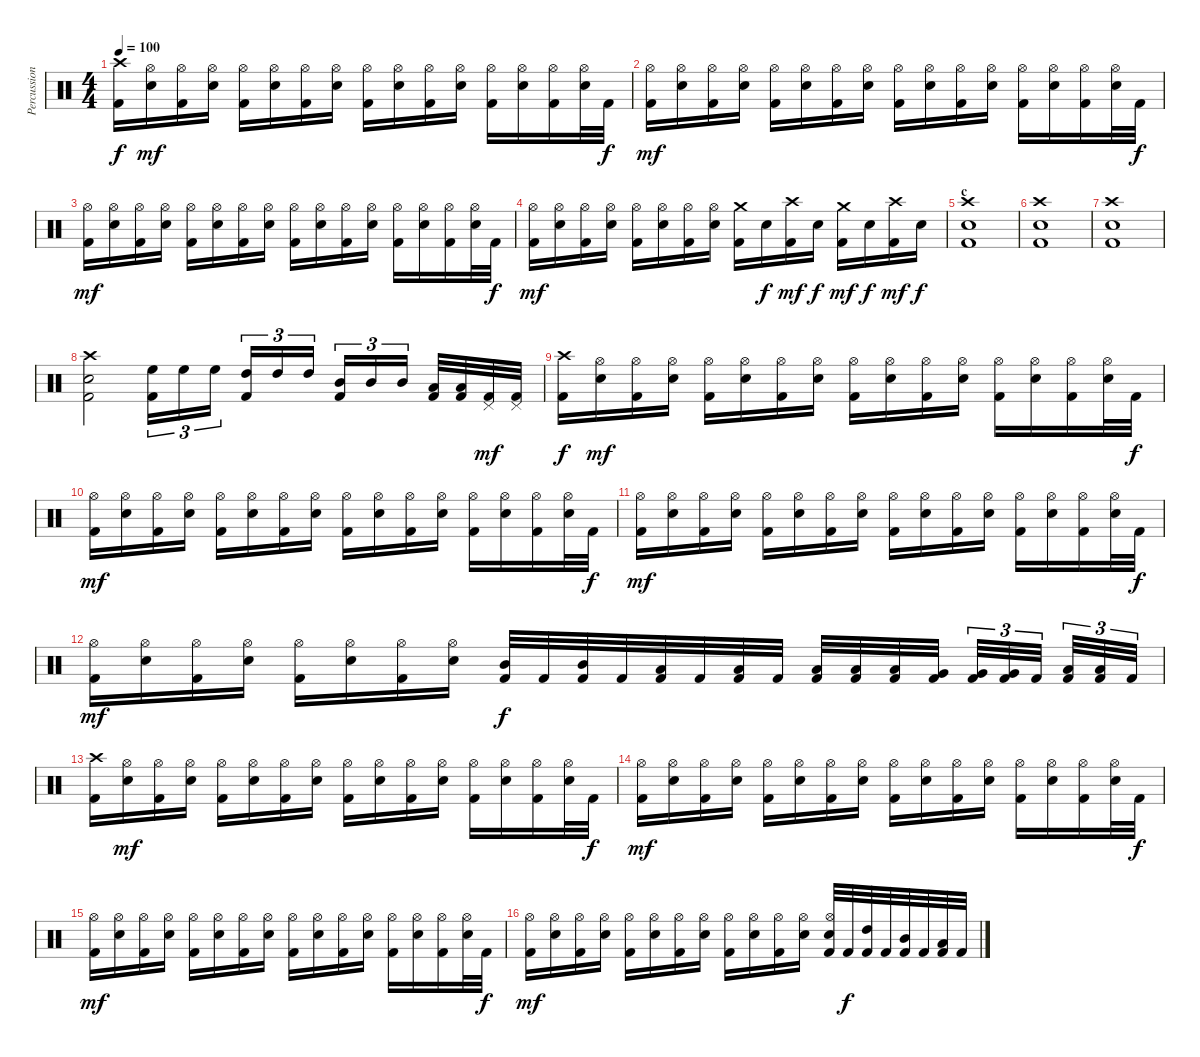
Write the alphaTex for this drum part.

\track ("Percussion" "Percussion") {instrument percussion}
\staff {score}
\articulation defaults
\ts (4 4)
\tempo 100
\clef neutral
\ks c
("Crash high (hit)" "Kick (hit) 2").16{dy f} ("Hi-Hat (open)" "Electric Snare (hit)").16{dy mf} ("Hi-Hat (open)" "Kick (hit) 2").16 ("Hi-Hat (open)" "Electric Snare (hit)").16 ("Hi-Hat (open)" "Kick (hit) 2").16 ("Hi-Hat (open)" "Electric Snare (hit)").16 ("Hi-Hat (open)" "Kick (hit) 2").16 ("Hi-Hat (open)" "Electric Snare (hit)").16 ("Hi-Hat (open)" "Kick (hit) 2").16 ("Hi-Hat (open)" "Electric Snare (hit)").16 ("Hi-Hat (open)" "Kick (hit) 2").16 ("Hi-Hat (open)" "Electric Snare (hit)").16 ("Hi-Hat (open)" "Kick (hit) 2").16 ("Hi-Hat (open)" "Electric Snare (hit)").16 ("Hi-Hat (open)" "Kick (hit) 2").16 ("Hi-Hat (open)" "Electric Snare (hit)").32 "Kick (hit) 2".32{dy f} |
("Hi-Hat (open)" "Kick (hit) 2").16{dy mf} ("Hi-Hat (open)" "Electric Snare (hit)").16 ("Hi-Hat (open)" "Kick (hit) 2").16 ("Hi-Hat (open)" "Electric Snare (hit)").16 ("Hi-Hat (open)" "Kick (hit) 2").16 ("Hi-Hat (open)" "Electric Snare (hit)").16 ("Hi-Hat (open)" "Kick (hit) 2").16 ("Hi-Hat (open)" "Electric Snare (hit)").16 ("Hi-Hat (open)" "Kick (hit) 2").16 ("Hi-Hat (open)" "Electric Snare (hit)").16 ("Hi-Hat (open)" "Kick (hit) 2").16 ("Hi-Hat (open)" "Electric Snare (hit)").16 ("Hi-Hat (open)" "Kick (hit) 2").16 ("Hi-Hat (open)" "Electric Snare (hit)").16 ("Hi-Hat (open)" "Kick (hit) 2").16 ("Hi-Hat (open)" "Electric Snare (hit)").32 "Kick (hit) 2".32{dy f} |
("Hi-Hat (open)" "Kick (hit) 2").16{dy mf} ("Hi-Hat (open)" "Electric Snare (hit)").16 ("Hi-Hat (open)" "Kick (hit) 2").16 ("Hi-Hat (open)" "Electric Snare (hit)").16 ("Hi-Hat (open)" "Kick (hit) 2").16 ("Hi-Hat (open)" "Electric Snare (hit)").16 ("Hi-Hat (open)" "Kick (hit) 2").16 ("Hi-Hat (open)" "Electric Snare (hit)").16 ("Hi-Hat (open)" "Kick (hit) 2").16 ("Hi-Hat (open)" "Electric Snare (hit)").16 ("Hi-Hat (open)" "Kick (hit) 2").16 ("Hi-Hat (open)" "Electric Snare (hit)").16 ("Hi-Hat (open)" "Kick (hit) 2").16 ("Hi-Hat (open)" "Electric Snare (hit)").16 ("Hi-Hat (open)" "Kick (hit) 2").16 ("Hi-Hat (open)" "Electric Snare (hit)").32 "Kick (hit) 2".32{dy f} |
("Hi-Hat (open)" "Kick (hit) 2").16{dy mf} ("Hi-Hat (open)" "Electric Snare (hit)").16 ("Hi-Hat (open)" "Kick (hit) 2").16 ("Hi-Hat (open)" "Electric Snare (hit)").16 ("Hi-Hat (open)" "Kick (hit) 2").16 ("Hi-Hat (open)" "Electric Snare (hit)").16 ("Hi-Hat (open)" "Kick (hit) 2").16 ("Hi-Hat (open)" "Electric Snare (hit)").16 ("Crash medium (hit)" "Kick (hit) 2").16 "Electric Snare (hit)".16{dy f} ("Crash high (hit)" "Kick (hit) 2").16{dy mf} "Electric Snare (hit)".16{dy f} ("Crash medium (hit)" "Kick (hit) 2").16{dy mf} "Electric Snare (hit)".16{dy f} ("Crash high (hit)" "Kick (hit) 2").16{dy mf} "Electric Snare (hit)".16{dy f} |
\section ("" "c")
("Crash high (hit)" "Electric Snare (hit)" "Kick (hit) 2").1 |
("Crash high (hit)" "Electric Snare (hit)" "Kick (hit) 2").1 |
("Crash high (hit)" "Electric Snare (hit)" "Kick (hit) 2").1 |
("Crash high (hit)" "Electric Snare (hit)" "Kick (hit) 2").2 ("High Floor Tom (hit)" "Kick (hit) 2").16{tu (3 2)} "High Floor Tom (hit)".16{tu (3 2)} "High Floor Tom (hit)".16{tu (3 2)} ("High Tom (hit)" "Kick (hit) 2").16{tu (3 2)} "High Tom (hit)".16{tu (3 2)} "High Tom (hit)".16{tu (3 2)} ("Mid Tom (hit)" "Kick (hit) 2").16{tu (3 2)} "Mid Tom (hit)".16{tu (3 2)} "Mid Tom (hit)".16{tu (3 2)} ("Low Tom (hit)" "Kick (hit) 2").32 ("Low Tom (hit)" "Kick (hit) 2").32 ("Pedal Hi-Hat (hit)" "Kick (hit) 2").32{dy mf} ("Pedal Hi-Hat (hit)" "Kick (hit) 2").32 |
("Crash high (hit)" "Kick (hit) 2").16{dy f} ("Hi-Hat (open)" "Electric Snare (hit)").16{dy mf} ("Hi-Hat (open)" "Kick (hit) 2").16 ("Hi-Hat (open)" "Electric Snare (hit)").16 ("Hi-Hat (open)" "Kick (hit) 2").16 ("Hi-Hat (open)" "Electric Snare (hit)").16 ("Hi-Hat (open)" "Kick (hit) 2").16 ("Hi-Hat (open)" "Electric Snare (hit)").16 ("Hi-Hat (open)" "Kick (hit) 2").16 ("Hi-Hat (open)" "Electric Snare (hit)").16 ("Hi-Hat (open)" "Kick (hit) 2").16 ("Hi-Hat (open)" "Electric Snare (hit)").16 ("Hi-Hat (open)" "Kick (hit) 2").16 ("Hi-Hat (open)" "Electric Snare (hit)").16 ("Hi-Hat (open)" "Kick (hit) 2").16 ("Hi-Hat (open)" "Electric Snare (hit)").32 "Kick (hit) 2".32{dy f} |
("Hi-Hat (open)" "Kick (hit) 2").16{dy mf} ("Hi-Hat (open)" "Electric Snare (hit)").16 ("Hi-Hat (open)" "Kick (hit) 2").16 ("Hi-Hat (open)" "Electric Snare (hit)").16 ("Hi-Hat (open)" "Kick (hit) 2").16 ("Hi-Hat (open)" "Electric Snare (hit)").16 ("Hi-Hat (open)" "Kick (hit) 2").16 ("Hi-Hat (open)" "Electric Snare (hit)").16 ("Hi-Hat (open)" "Kick (hit) 2").16 ("Hi-Hat (open)" "Electric Snare (hit)").16 ("Hi-Hat (open)" "Kick (hit) 2").16 ("Hi-Hat (open)" "Electric Snare (hit)").16 ("Hi-Hat (open)" "Kick (hit) 2").16 ("Hi-Hat (open)" "Electric Snare (hit)").16 ("Hi-Hat (open)" "Kick (hit) 2").16 ("Hi-Hat (open)" "Electric Snare (hit)").32 "Kick (hit) 2".32{dy f} |
("Hi-Hat (open)" "Kick (hit) 2").16{dy mf} ("Hi-Hat (open)" "Electric Snare (hit)").16 ("Hi-Hat (open)" "Kick (hit) 2").16 ("Hi-Hat (open)" "Electric Snare (hit)").16 ("Hi-Hat (open)" "Kick (hit) 2").16 ("Hi-Hat (open)" "Electric Snare (hit)").16 ("Hi-Hat (open)" "Kick (hit) 2").16 ("Hi-Hat (open)" "Electric Snare (hit)").16 ("Hi-Hat (open)" "Kick (hit) 2").16 ("Hi-Hat (open)" "Electric Snare (hit)").16 ("Hi-Hat (open)" "Kick (hit) 2").16 ("Hi-Hat (open)" "Electric Snare (hit)").16 ("Hi-Hat (open)" "Kick (hit) 2").16 ("Hi-Hat (open)" "Electric Snare (hit)").16 ("Hi-Hat (open)" "Kick (hit) 2").16 ("Hi-Hat (open)" "Electric Snare (hit)").32 "Kick (hit) 2".32{dy f} |
("Hi-Hat (open)" "Kick (hit) 2").16{dy mf} ("Hi-Hat (open)" "Electric Snare (hit)").16 ("Hi-Hat (open)" "Kick (hit) 2").16 ("Hi-Hat (open)" "Electric Snare (hit)").16 ("Hi-Hat (open)" "Kick (hit) 2").16 ("Hi-Hat (open)" "Electric Snare (hit)").16 ("Hi-Hat (open)" "Kick (hit) 2").16 ("Hi-Hat (open)" "Electric Snare (hit)").16 ("Mid Tom (hit)" "Kick (hit) 2").32{dy f} "Kick (hit) 2".32 ("Mid Tom (hit)" "Kick (hit) 2").32 "Kick (hit) 2".32 ("Low Tom (hit)" "Kick (hit) 2").32 "Kick (hit) 2".32 ("Low Tom (hit)" "Kick (hit) 2").32 "Kick (hit) 2".32 ("Low Tom (hit)" "Kick (hit) 2").32 ("Low Tom (hit)" "Kick (hit) 2").32 ("Low Tom (hit)" "Kick (hit) 2").32 ("Very Low Tom (hit)" "Kick (hit) 2").32 ("Very Low Tom (hit)" "Kick (hit) 2").32{tu (3 2)} ("Very Low Tom (hit)" "Kick (hit) 2").32{tu (3 2)} "Kick (hit) 2".32{tu (3 2)} ("Low Floor Tom (hit)" "Kick (hit) 2").32{tu (3 2)} ("Low Floor Tom (hit)" "Kick (hit) 2").32{tu (3 2)} "Kick (hit) 2".32{tu (3 2)} |
\section ("" "")
("Crash high (hit)" "Kick (hit) 2").16 ("Hi-Hat (open)" "Electric Snare (hit)").16{dy mf} ("Hi-Hat (open)" "Kick (hit) 2").16 ("Hi-Hat (open)" "Electric Snare (hit)").16 ("Hi-Hat (open)" "Kick (hit) 2").16 ("Hi-Hat (open)" "Electric Snare (hit)").16 ("Hi-Hat (open)" "Kick (hit) 2").16 ("Hi-Hat (open)" "Electric Snare (hit)").16 ("Hi-Hat (open)" "Kick (hit) 2").16 ("Hi-Hat (open)" "Electric Snare (hit)").16 ("Hi-Hat (open)" "Kick (hit) 2").16 ("Hi-Hat (open)" "Electric Snare (hit)").16 ("Hi-Hat (open)" "Kick (hit) 2").16 ("Hi-Hat (open)" "Electric Snare (hit)").16 ("Hi-Hat (open)" "Kick (hit) 2").16 ("Hi-Hat (open)" "Electric Snare (hit)").32 "Kick (hit) 2".32{dy f} |
("Hi-Hat (open)" "Kick (hit) 2").16{dy mf} ("Hi-Hat (open)" "Electric Snare (hit)").16 ("Hi-Hat (open)" "Kick (hit) 2").16 ("Hi-Hat (open)" "Electric Snare (hit)").16 ("Hi-Hat (open)" "Kick (hit) 2").16 ("Hi-Hat (open)" "Electric Snare (hit)").16 ("Hi-Hat (open)" "Kick (hit) 2").16 ("Hi-Hat (open)" "Electric Snare (hit)").16 ("Hi-Hat (open)" "Kick (hit) 2").16 ("Hi-Hat (open)" "Electric Snare (hit)").16 ("Hi-Hat (open)" "Kick (hit) 2").16 ("Hi-Hat (open)" "Electric Snare (hit)").16 ("Hi-Hat (open)" "Kick (hit) 2").16 ("Hi-Hat (open)" "Electric Snare (hit)").16 ("Hi-Hat (open)" "Kick (hit) 2").16 ("Hi-Hat (open)" "Electric Snare (hit)").32 "Kick (hit) 2".32{dy f} |
("Hi-Hat (open)" "Kick (hit) 2").16{dy mf} ("Hi-Hat (open)" "Electric Snare (hit)").16 ("Hi-Hat (open)" "Kick (hit) 2").16 ("Hi-Hat (open)" "Electric Snare (hit)").16 ("Hi-Hat (open)" "Kick (hit) 2").16 ("Hi-Hat (open)" "Electric Snare (hit)").16 ("Hi-Hat (open)" "Kick (hit) 2").16 ("Hi-Hat (open)" "Electric Snare (hit)").16 ("Hi-Hat (open)" "Kick (hit) 2").16 ("Hi-Hat (open)" "Electric Snare (hit)").16 ("Hi-Hat (open)" "Kick (hit) 2").16 ("Hi-Hat (open)" "Electric Snare (hit)").16 ("Hi-Hat (open)" "Kick (hit) 2").16 ("Hi-Hat (open)" "Electric Snare (hit)").16 ("Hi-Hat (open)" "Kick (hit) 2").16 ("Hi-Hat (open)" "Electric Snare (hit)").32 "Kick (hit) 2".32{dy f} |
("Hi-Hat (open)" "Kick (hit) 2").16{dy mf} ("Hi-Hat (open)" "Electric Snare (hit)").16 ("Hi-Hat (open)" "Kick (hit) 2").16 ("Hi-Hat (open)" "Electric Snare (hit)").16 ("Hi-Hat (open)" "Kick (hit) 2").16 ("Hi-Hat (open)" "Electric Snare (hit)").16 ("Hi-Hat (open)" "Kick (hit) 2").16 ("Hi-Hat (open)" "Electric Snare (hit)").16 ("Hi-Hat (open)" "Kick (hit) 2").16 ("Hi-Hat (open)" "Electric Snare (hit)").16 ("Hi-Hat (open)" "Kick (hit) 2").16 ("Hi-Hat (open)" "Electric Snare (hit)").16 ("Hi-Hat (open)" "Electric Snare (hit)" "Kick (hit) 2").32 "Kick (hit) 2".32{dy f} ("High Tom (hit)" "Kick (hit) 2").32 "Kick (hit) 2".32 ("Mid Tom (hit)" "Kick (hit) 2").32 "Kick (hit) 2".32 ("Low Tom (hit)" "Kick (hit) 2").32 "Kick (hit) 2".32
